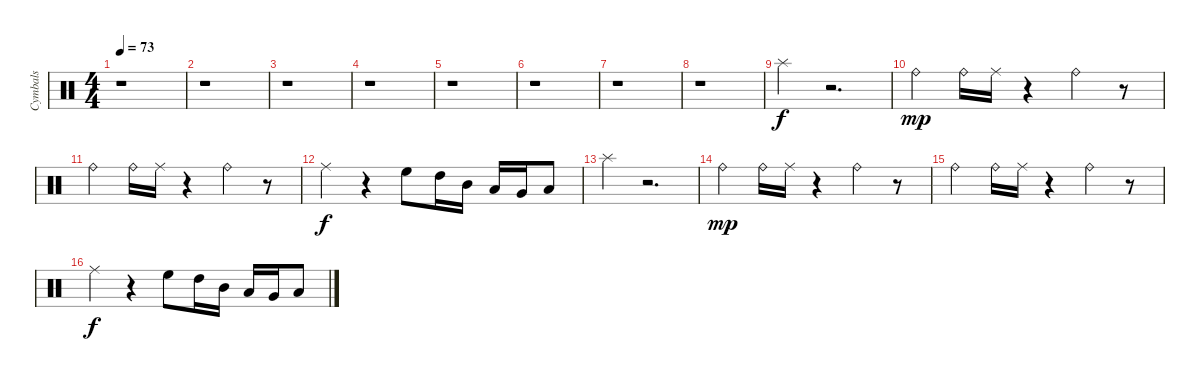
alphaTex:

\track ("Cymbals" "Cymbals") {instrument percussion}
\staff {score}
\articulation defaults
\ts (4 4)
\tempo 73
\clef neutral
\ks c
r.1{dy f} |
r.1 |
r.1 |
r.1 |
r.1 |
r.1 |
r.1 |
r.1 |
"Splash (hit)".4 r.2{d} |
"Ride (bell)".4{dy mp} "Ride (bell)".16 "Ride (middle)".16 r.4 "Ride (bell)".4 r.8 |
"Ride (bell)".4 "Ride (bell)".16 "Ride (middle)".16 r.4 "Ride (bell)".4 r.8 |
"Ride (middle)".4{dy f} r.4 "High Floor Tom (hit)".8 "High Tom (hit)".16 "Mid Tom (hit)".16 "Low Tom (hit)".16 "Very Low Tom (hit)".16 "Low Floor Tom (hit)".8 |
"Splash (hit)".4 r.2{d} |
"Ride (bell)".4{dy mp} "Ride (bell)".16 "Ride (middle)".16 r.4 "Ride (bell)".4 r.8 |
"Ride (bell)".4 "Ride (bell)".16 "Ride (middle)".16 r.4 "Ride (bell)".4 r.8 |
"Ride (middle)".4{dy f} r.4 "High Floor Tom (hit)".8 "High Tom (hit)".16 "Mid Tom (hit)".16 "Low Tom (hit)".16 "Very Low Tom (hit)".16 "Low Floor Tom (hit)".8
